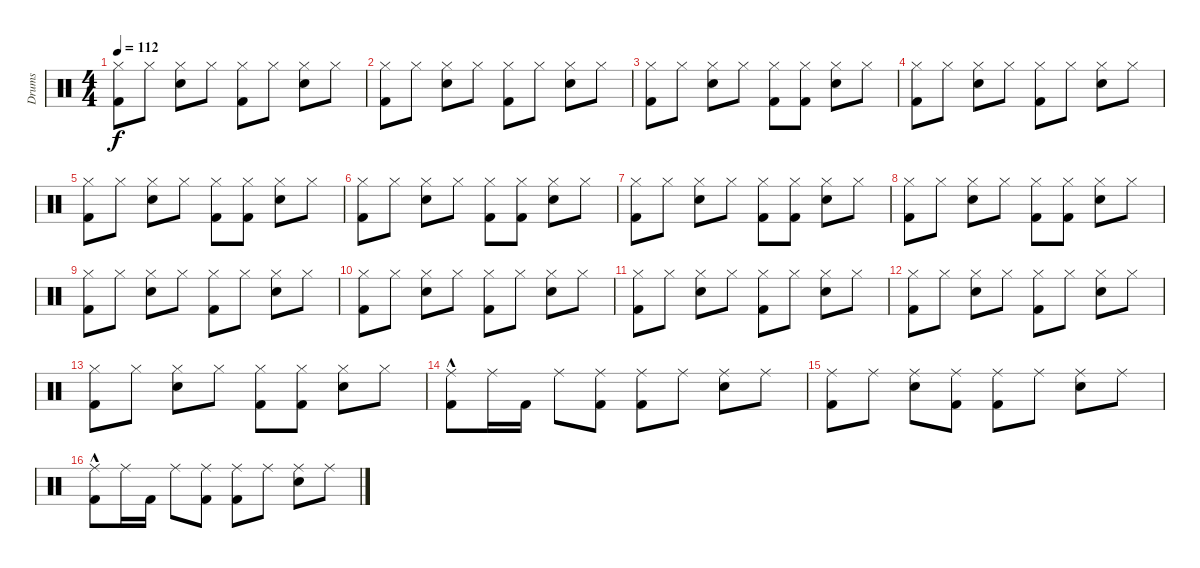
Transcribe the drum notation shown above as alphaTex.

\track ("Drums" "Drums") {instrument percussion}
\staff {score}
\articulation defaults
\ts (4 4)
\tempo 112
\clef neutral
\ks c
("Hi-Hat (closed)" "Kick (hit) 2").8{dy f} "Hi-Hat (closed)".8 ("Hi-Hat (closed)" "Electric Snare (hit)").8 "Hi-Hat (closed)".8 ("Hi-Hat (closed)" "Kick (hit) 2").8 "Hi-Hat (closed)".8 ("Hi-Hat (closed)" "Electric Snare (hit)").8 "Hi-Hat (closed)".8 |
("Hi-Hat (closed)" "Kick (hit) 2").8 "Hi-Hat (closed)".8 ("Hi-Hat (closed)" "Electric Snare (hit)").8 "Hi-Hat (closed)".8 ("Hi-Hat (closed)" "Kick (hit) 2").8 "Hi-Hat (closed)".8 ("Hi-Hat (closed)" "Electric Snare (hit)").8 "Hi-Hat (closed)".8 |
("Hi-Hat (closed)" "Kick (hit) 2").8 "Hi-Hat (closed)".8 ("Hi-Hat (closed)" "Electric Snare (hit)").8 "Hi-Hat (closed)".8 ("Hi-Hat (closed)" "Kick (hit) 2").8 ("Hi-Hat (closed)" "Kick (hit) 2").8 ("Hi-Hat (closed)" "Electric Snare (hit)").8 "Hi-Hat (closed)".8 |
("Hi-Hat (closed)" "Kick (hit) 2").8 "Hi-Hat (closed)".8 ("Hi-Hat (closed)" "Electric Snare (hit)").8 "Hi-Hat (closed)".8 ("Hi-Hat (closed)" "Kick (hit) 2").8 "Hi-Hat (closed)".8 ("Hi-Hat (closed)" "Electric Snare (hit)").8 "Hi-Hat (closed)".8 |
("Hi-Hat (closed)" "Kick (hit) 2").8 "Hi-Hat (closed)".8 ("Hi-Hat (closed)" "Electric Snare (hit)").8 "Hi-Hat (closed)".8 ("Hi-Hat (closed)" "Kick (hit) 2").8 ("Hi-Hat (closed)" "Kick (hit) 2").8 ("Hi-Hat (closed)" "Electric Snare (hit)").8 "Hi-Hat (closed)".8 |
("Hi-Hat (closed)" "Kick (hit) 2").8 "Hi-Hat (closed)".8 ("Hi-Hat (closed)" "Electric Snare (hit)").8 "Hi-Hat (closed)".8 ("Hi-Hat (closed)" "Kick (hit) 2").8 ("Hi-Hat (closed)" "Kick (hit) 2").8 ("Hi-Hat (closed)" "Electric Snare (hit)").8 "Hi-Hat (closed)".8 |
("Hi-Hat (closed)" "Kick (hit) 2").8 "Hi-Hat (closed)".8 ("Hi-Hat (closed)" "Electric Snare (hit)").8 "Hi-Hat (closed)".8 ("Hi-Hat (closed)" "Kick (hit) 2").8 ("Hi-Hat (closed)" "Kick (hit) 2").8 ("Hi-Hat (closed)" "Electric Snare (hit)").8 "Hi-Hat (closed)".8 |
("Hi-Hat (closed)" "Kick (hit) 2").8 "Hi-Hat (closed)".8 ("Hi-Hat (closed)" "Electric Snare (hit)").8 "Hi-Hat (closed)".8 ("Hi-Hat (closed)" "Kick (hit) 2").8 ("Hi-Hat (closed)" "Kick (hit) 2").8 ("Hi-Hat (closed)" "Electric Snare (hit)").8 "Hi-Hat (closed)".8 |
("Hi-Hat (closed)" "Kick (hit) 2").8 "Hi-Hat (closed)".8 ("Hi-Hat (closed)" "Electric Snare (hit)").8 "Hi-Hat (closed)".8 ("Hi-Hat (closed)" "Kick (hit) 2").8 "Hi-Hat (closed)".8 ("Hi-Hat (closed)" "Electric Snare (hit)").8 "Hi-Hat (closed)".8 |
("Hi-Hat (closed)" "Kick (hit) 2").8 "Hi-Hat (closed)".8 ("Hi-Hat (closed)" "Electric Snare (hit)").8 "Hi-Hat (closed)".8 ("Hi-Hat (closed)" "Kick (hit) 2").8 "Hi-Hat (closed)".8 ("Hi-Hat (closed)" "Electric Snare (hit)").8 "Hi-Hat (closed)".8 |
("Hi-Hat (closed)" "Kick (hit) 2").8 "Hi-Hat (closed)".8 ("Hi-Hat (closed)" "Electric Snare (hit)").8 "Hi-Hat (closed)".8 ("Hi-Hat (closed)" "Kick (hit) 2").8 "Hi-Hat (closed)".8 ("Hi-Hat (closed)" "Electric Snare (hit)").8 "Hi-Hat (closed)".8 |
("Hi-Hat (closed)" "Kick (hit) 2").8 "Hi-Hat (closed)".8 ("Hi-Hat (closed)" "Electric Snare (hit)").8 "Hi-Hat (closed)".8 ("Hi-Hat (closed)" "Kick (hit) 2").8 "Hi-Hat (closed)".8 ("Hi-Hat (closed)" "Electric Snare (hit)").8 "Hi-Hat (closed)".8 |
("Hi-Hat (closed)" "Kick (hit) 2").8 "Hi-Hat (closed)".8 ("Hi-Hat (closed)" "Electric Snare (hit)").8 "Hi-Hat (closed)".8 ("Hi-Hat (closed)" "Kick (hit) 2").8 ("Hi-Hat (closed)" "Kick (hit) 2").8 ("Hi-Hat (closed)" "Electric Snare (hit)").8 "Hi-Hat (closed)".8 |
("Ride (middle)" "Kick (hit) 2"{hac}).8 "Ride (middle)".16 "Kick (hit) 2".16 "Ride (middle)".8 ("Ride (middle)" "Kick (hit) 2").8 ("Ride (middle)" "Kick (hit) 2").8 "Ride (middle)".8 ("Ride (middle)" "Electric Snare (hit)").8 "Ride (middle)".8 |
("Ride (middle)" "Kick (hit) 2").8 "Ride (middle)".8 ("Ride (middle)" "Electric Snare (hit)").8 ("Ride (middle)" "Kick (hit) 2").8 ("Ride (middle)" "Kick (hit) 2").8 "Ride (middle)".8 ("Ride (middle)" "Electric Snare (hit)").8 "Ride (middle)".8 |
("Ride (middle)" "Kick (hit) 2"{hac}).8 "Ride (middle)".16 "Kick (hit) 2".16 "Ride (middle)".8 ("Ride (middle)" "Kick (hit) 2").8 ("Ride (middle)" "Kick (hit) 2").8 "Ride (middle)".8 ("Ride (middle)" "Electric Snare (hit)").8 "Ride (middle)".8
